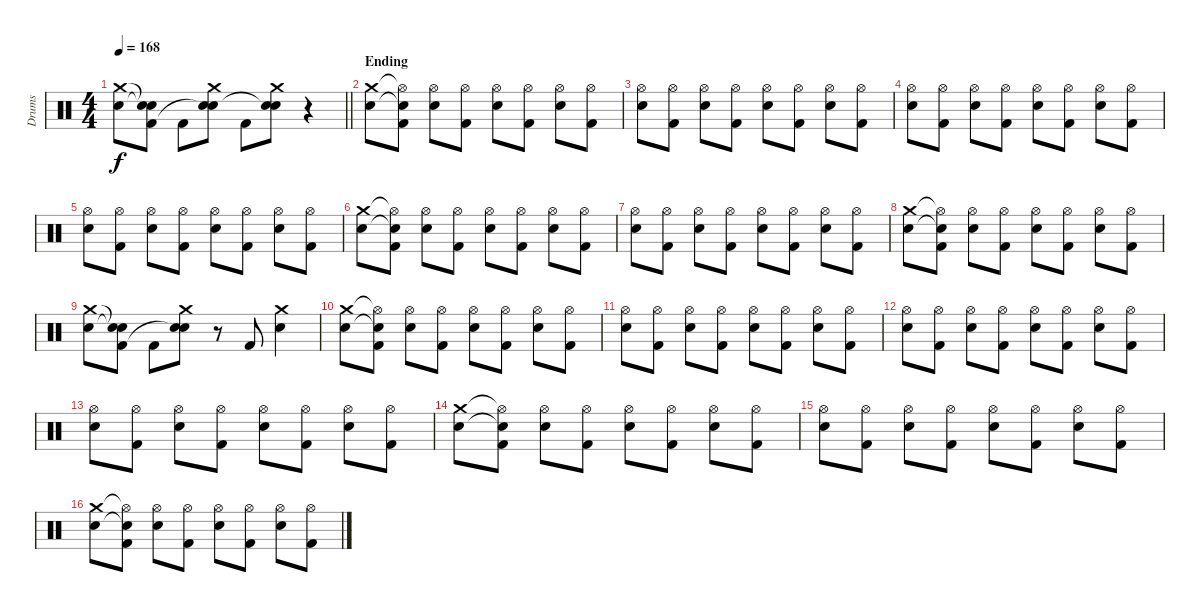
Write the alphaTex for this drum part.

\track ("Drums" "Drums") {instrument percussion}
\staff {score}
\articulation defaults
\ts (4 4)
\tempo 168
\clef neutral
\barLineRight lightlight
\ks c
("Crash medium (hit)" "Electric Snare (hit)").8{dy f} ("Snare (hit)"{t} "Snare (hit)"{t} "Kick (hit) 2").8 "Kick (hit) 2".8 ("Crash medium (hit)" "Electric Snare (hit)" "Snare (hit)"{t}).8 "Kick (hit) 2".8 ("Crash medium (hit)" "Electric Snare (hit)" "Snare (hit)"{t}).8 r.4 |
\section ("" "Ending")
("Crash medium (hit)" "Electric Snare (hit)").8 ("Hi-Hat (open)"{t} "Snare (hit)"{t} "Kick (hit) 2").8 ("Hi-Hat (open)" "Electric Snare (hit)").8 ("Hi-Hat (open)" "Kick (hit) 2").8 ("Hi-Hat (open)" "Electric Snare (hit)").8 ("Hi-Hat (open)" "Kick (hit) 2").8 ("Hi-Hat (open)" "Electric Snare (hit)").8 ("Hi-Hat (open)" "Kick (hit) 2").8 |
("Hi-Hat (open)" "Electric Snare (hit)").8 ("Hi-Hat (open)" "Kick (hit) 2").8 ("Hi-Hat (open)" "Electric Snare (hit)").8 ("Hi-Hat (open)" "Kick (hit) 2").8 ("Hi-Hat (open)" "Electric Snare (hit)").8 ("Hi-Hat (open)" "Kick (hit) 2").8 ("Hi-Hat (open)" "Electric Snare (hit)").8 ("Hi-Hat (open)" "Kick (hit) 2").8 |
("Hi-Hat (open)" "Electric Snare (hit)").8 ("Hi-Hat (open)" "Kick (hit) 2").8 ("Hi-Hat (open)" "Electric Snare (hit)").8 ("Hi-Hat (open)" "Kick (hit) 2").8 ("Hi-Hat (open)" "Electric Snare (hit)").8 ("Hi-Hat (open)" "Kick (hit) 2").8 ("Hi-Hat (open)" "Electric Snare (hit)").8 ("Hi-Hat (open)" "Kick (hit) 2").8 |
("Hi-Hat (open)" "Electric Snare (hit)").8 ("Hi-Hat (open)" "Kick (hit) 2").8 ("Hi-Hat (open)" "Electric Snare (hit)").8 ("Hi-Hat (open)" "Kick (hit) 2").8 ("Hi-Hat (open)" "Electric Snare (hit)").8 ("Hi-Hat (open)" "Kick (hit) 2").8 ("Hi-Hat (open)" "Electric Snare (hit)").8 ("Hi-Hat (open)" "Kick (hit) 2").8 |
("Crash medium (hit)" "Electric Snare (hit)").8 ("Hi-Hat (open)"{t} "Snare (hit)"{t} "Kick (hit) 2").8 ("Hi-Hat (open)" "Electric Snare (hit)").8 ("Hi-Hat (open)" "Kick (hit) 2").8 ("Hi-Hat (open)" "Electric Snare (hit)").8 ("Hi-Hat (open)" "Kick (hit) 2").8 ("Hi-Hat (open)" "Electric Snare (hit)").8 ("Hi-Hat (open)" "Kick (hit) 2").8 |
("Hi-Hat (open)" "Electric Snare (hit)").8 ("Hi-Hat (open)" "Kick (hit) 2").8 ("Hi-Hat (open)" "Electric Snare (hit)").8 ("Hi-Hat (open)" "Kick (hit) 2").8 ("Hi-Hat (open)" "Electric Snare (hit)").8 ("Hi-Hat (open)" "Kick (hit) 2").8 ("Hi-Hat (open)" "Electric Snare (hit)").8 ("Hi-Hat (open)" "Kick (hit) 2").8 |
("Crash medium (hit)" "Electric Snare (hit)").8 ("Hi-Hat (open)"{t} "Snare (hit)"{t} "Kick (hit) 2").8 ("Hi-Hat (open)" "Electric Snare (hit)").8 ("Hi-Hat (open)" "Kick (hit) 2").8 ("Hi-Hat (open)" "Electric Snare (hit)").8 ("Hi-Hat (open)" "Kick (hit) 2").8 ("Hi-Hat (open)" "Electric Snare (hit)").8 ("Hi-Hat (open)" "Kick (hit) 2").8 |
("Crash medium (hit)" "Electric Snare (hit)").8 ("Snare (hit)"{t} "Snare (hit)"{t} "Kick (hit) 2").8 "Kick (hit) 2".8 ("Crash medium (hit)" "Electric Snare (hit)" "Snare (hit)"{t}).8 r.8 "Kick (hit) 2".8 ("Crash medium (hit)" "Electric Snare (hit)").4 |
("Crash medium (hit)" "Electric Snare (hit)").8 ("Hi-Hat (open)"{t} "Snare (hit)"{t} "Kick (hit) 2").8 ("Hi-Hat (open)" "Electric Snare (hit)").8 ("Hi-Hat (open)" "Kick (hit) 2").8 ("Hi-Hat (open)" "Electric Snare (hit)").8 ("Hi-Hat (open)" "Kick (hit) 2").8 ("Hi-Hat (open)" "Electric Snare (hit)").8 ("Hi-Hat (open)" "Kick (hit) 2").8 |
("Hi-Hat (open)" "Electric Snare (hit)").8 ("Hi-Hat (open)" "Kick (hit) 2").8 ("Hi-Hat (open)" "Electric Snare (hit)").8 ("Hi-Hat (open)" "Kick (hit) 2").8 ("Hi-Hat (open)" "Electric Snare (hit)").8 ("Hi-Hat (open)" "Kick (hit) 2").8 ("Hi-Hat (open)" "Electric Snare (hit)").8 ("Hi-Hat (open)" "Kick (hit) 2").8 |
("Hi-Hat (open)" "Electric Snare (hit)").8 ("Hi-Hat (open)" "Kick (hit) 2").8 ("Hi-Hat (open)" "Electric Snare (hit)").8 ("Hi-Hat (open)" "Kick (hit) 2").8 ("Hi-Hat (open)" "Electric Snare (hit)").8 ("Hi-Hat (open)" "Kick (hit) 2").8 ("Hi-Hat (open)" "Electric Snare (hit)").8 ("Hi-Hat (open)" "Kick (hit) 2").8 |
("Hi-Hat (open)" "Electric Snare (hit)").8 ("Hi-Hat (open)" "Kick (hit) 2").8 ("Hi-Hat (open)" "Electric Snare (hit)").8 ("Hi-Hat (open)" "Kick (hit) 2").8 ("Hi-Hat (open)" "Electric Snare (hit)").8 ("Hi-Hat (open)" "Kick (hit) 2").8 ("Hi-Hat (open)" "Electric Snare (hit)").8 ("Hi-Hat (open)" "Kick (hit) 2").8 |
("Crash medium (hit)" "Electric Snare (hit)").8 ("Hi-Hat (open)"{t} "Snare (hit)"{t} "Kick (hit) 2").8 ("Hi-Hat (open)" "Electric Snare (hit)").8 ("Hi-Hat (open)" "Kick (hit) 2").8 ("Hi-Hat (open)" "Electric Snare (hit)").8 ("Hi-Hat (open)" "Kick (hit) 2").8 ("Hi-Hat (open)" "Electric Snare (hit)").8 ("Hi-Hat (open)" "Kick (hit) 2").8 |
("Hi-Hat (open)" "Electric Snare (hit)").8 ("Hi-Hat (open)" "Kick (hit) 2").8 ("Hi-Hat (open)" "Electric Snare (hit)").8 ("Hi-Hat (open)" "Kick (hit) 2").8 ("Hi-Hat (open)" "Electric Snare (hit)").8 ("Hi-Hat (open)" "Kick (hit) 2").8 ("Hi-Hat (open)" "Electric Snare (hit)").8 ("Hi-Hat (open)" "Kick (hit) 2").8 |
("Crash medium (hit)" "Electric Snare (hit)").8 ("Hi-Hat (open)"{t} "Snare (hit)"{t} "Kick (hit) 2").8 ("Hi-Hat (open)" "Electric Snare (hit)").8 ("Hi-Hat (open)" "Kick (hit) 2").8 ("Hi-Hat (open)" "Electric Snare (hit)").8 ("Hi-Hat (open)" "Kick (hit) 2").8 ("Hi-Hat (open)" "Electric Snare (hit)").8 ("Hi-Hat (open)" "Kick (hit) 2").8
